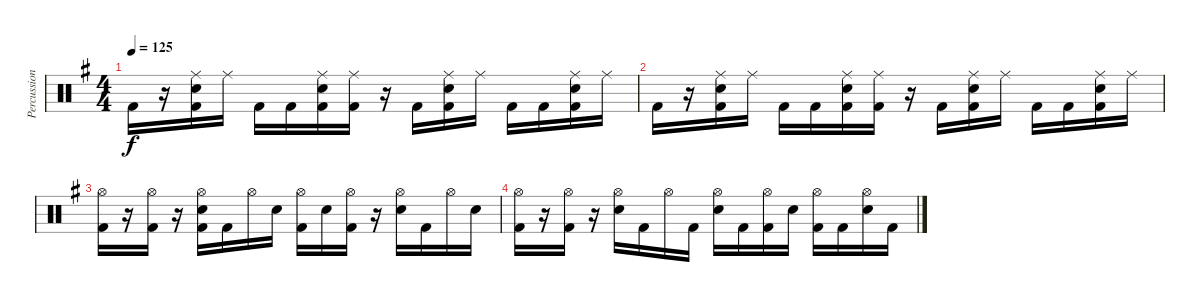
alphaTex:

\track ("Percussion" "Percussion") {instrument percussion}
\staff {score}
\articulation defaults
\ts (4 4)
\tempo 125
\clef neutral
\ks eminor "Kick (hit) 2".16{dy f}
r.16 ("Ride (middle)" "Snare (hit) 2" "Kick (hit) 2").16 "Ride (middle)".16 "Kick (hit) 2".16 "Kick (hit) 2".16 ("Ride (middle)" "Snare (hit) 2" "Kick (hit) 2").16 ("Ride (middle)" "Kick (hit) 2").16 r.16 "Kick (hit) 2".16 ("Ride (middle)" "Snare (hit) 2" "Kick (hit) 2").16 "Ride (middle)".16 "Kick (hit) 2".16 "Kick (hit) 2".16 ("Ride (middle)" "Snare (hit) 2" "Kick (hit) 2").16 "Ride (middle)".16 |
"Kick (hit) 2".16 r.16 ("Ride (middle)" "Snare (hit) 2" "Kick (hit) 2").16 "Ride (middle)".16 "Kick (hit) 2".16 "Kick (hit) 2".16 ("Ride (middle)" "Snare (hit) 2" "Kick (hit) 2").16 ("Ride (middle)" "Kick (hit) 2").16 r.16 "Kick (hit) 2".16 ("Ride (middle)" "Snare (hit) 2" "Kick (hit) 2").16 "Ride (middle)".16 "Kick (hit) 2".16 "Kick (hit) 2".16 ("Ride (middle)" "Snare (hit) 2" "Kick (hit) 2").16 "Ride (middle)".16 |
("Hi-Hat (open)" "Kick (hit) 2").16 r.16 ("Hi-Hat (open)" "Kick (hit) 2").16 r.16 ("Hi-Hat (open)" "Snare (hit) 2" "Kick (hit) 2").16 "Kick (hit) 2".16 "Hi-Hat (open)".16 "Snare (hit) 2".16 ("Hi-Hat (open)" "Kick (hit) 2").16 "Snare (hit) 2".16 ("Hi-Hat (open)" "Kick (hit) 2").16 r.16 ("Hi-Hat (open)" "Snare (hit) 2").16 "Kick (hit) 2".16 "Hi-Hat (open)".16 "Snare (hit) 2".16 |
("Hi-Hat (open)" "Kick (hit) 2").16 r.16 ("Hi-Hat (open)" "Kick (hit) 2").16 r.16 ("Hi-Hat (open)" "Snare (hit) 2").16 "Kick (hit) 2".16 "Hi-Hat (open)".16 "Kick (hit) 2".16 ("Hi-Hat (open)" "Snare (hit) 2").16 "Kick (hit) 2".16 ("Hi-Hat (open)" "Kick (hit) 2").16 "Snare (hit) 2".16 ("Hi-Hat (open)" "Kick (hit) 2").16 "Kick (hit) 2".16 ("Hi-Hat (open)" "Snare (hit) 2").16 "Kick (hit) 2".16
